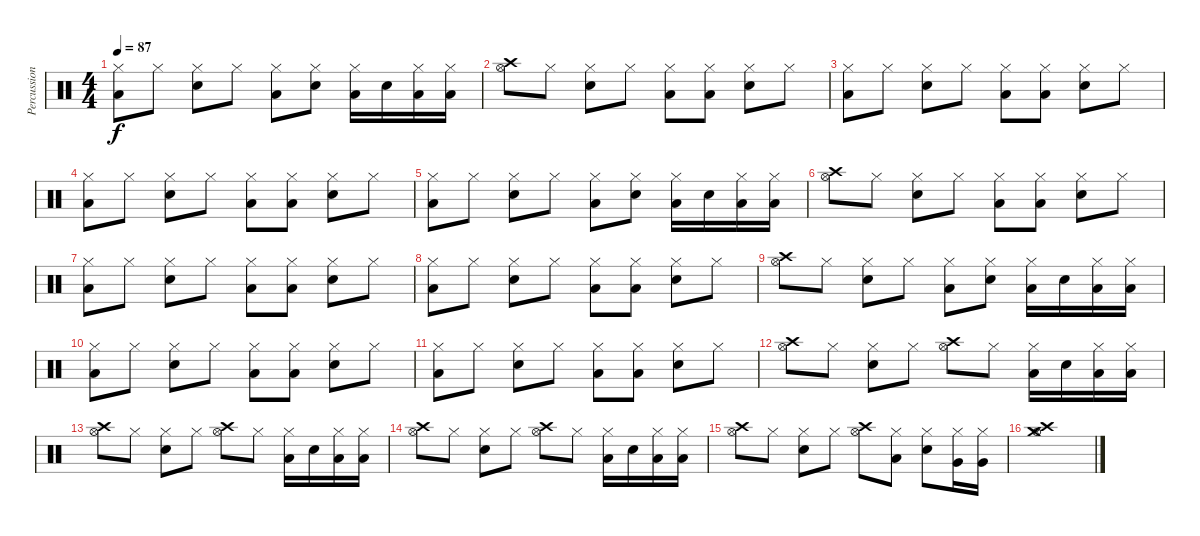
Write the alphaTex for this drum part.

\track ("Percussion" "Percussion") {instrument percussion}
\staff {score}
\articulation defaults
\ts (4 4)
\tempo 87
\clef neutral
\ks c
("Hi-Hat (closed)" "Low Floor Tom (hit)").8{dy f} "Hi-Hat (closed)".8 ("Hi-Hat (closed)" "Electric Snare (hit)").8 "Hi-Hat (closed)".8 ("Hi-Hat (closed)" "Low Floor Tom (hit)").8 ("Hi-Hat (closed)" "Electric Snare (hit)").8 ("Hi-Hat (closed)" "Low Floor Tom (hit)").16 "Electric Snare (hit)".16 ("Hi-Hat (closed)" "Low Floor Tom (hit)").16 ("Hi-Hat (closed)" "Low Floor Tom (hit)").16 |
("Crash high (hit)" "Hi-Hat (open)").8 "Hi-Hat (closed)".8 ("Hi-Hat (closed)" "Electric Snare (hit)").8 "Hi-Hat (closed)".8 ("Hi-Hat (closed)" "Low Floor Tom (hit)").8 ("Hi-Hat (closed)" "Low Floor Tom (hit)").8 ("Hi-Hat (closed)" "Electric Snare (hit)").8 "Hi-Hat (closed)".8 |
("Hi-Hat (closed)" "Low Floor Tom (hit)").8 "Hi-Hat (closed)".8 ("Hi-Hat (closed)" "Electric Snare (hit)").8 "Hi-Hat (closed)".8 ("Hi-Hat (closed)" "Low Floor Tom (hit)").8 ("Hi-Hat (closed)" "Low Floor Tom (hit)").8 ("Hi-Hat (closed)" "Electric Snare (hit)").8 "Hi-Hat (closed)".8 |
("Hi-Hat (closed)" "Low Floor Tom (hit)").8 "Hi-Hat (closed)".8 ("Hi-Hat (closed)" "Electric Snare (hit)").8 "Hi-Hat (closed)".8 ("Hi-Hat (closed)" "Low Floor Tom (hit)").8 ("Hi-Hat (closed)" "Low Floor Tom (hit)").8 ("Hi-Hat (closed)" "Electric Snare (hit)").8 "Hi-Hat (closed)".8 |
("Hi-Hat (closed)" "Low Floor Tom (hit)").8 "Hi-Hat (closed)".8 ("Hi-Hat (closed)" "Electric Snare (hit)").8 "Hi-Hat (closed)".8 ("Hi-Hat (closed)" "Low Floor Tom (hit)").8 ("Hi-Hat (closed)" "Electric Snare (hit)").8 ("Hi-Hat (closed)" "Low Floor Tom (hit)").16 "Electric Snare (hit)".16 ("Hi-Hat (closed)" "Low Floor Tom (hit)").16 ("Hi-Hat (closed)" "Low Floor Tom (hit)").16 |
("Crash high (hit)" "Hi-Hat (open)").8 "Hi-Hat (closed)".8 ("Hi-Hat (closed)" "Electric Snare (hit)").8 "Hi-Hat (closed)".8 ("Hi-Hat (closed)" "Low Floor Tom (hit)").8 ("Hi-Hat (closed)" "Low Floor Tom (hit)").8 ("Hi-Hat (closed)" "Electric Snare (hit)").8 "Hi-Hat (closed)".8 |
("Hi-Hat (closed)" "Low Floor Tom (hit)").8 "Hi-Hat (closed)".8 ("Hi-Hat (closed)" "Electric Snare (hit)").8 "Hi-Hat (closed)".8 ("Hi-Hat (closed)" "Low Floor Tom (hit)").8 ("Hi-Hat (closed)" "Low Floor Tom (hit)").8 ("Hi-Hat (closed)" "Electric Snare (hit)").8 "Hi-Hat (closed)".8 |
("Hi-Hat (closed)" "Low Floor Tom (hit)").8 "Hi-Hat (closed)".8 ("Hi-Hat (closed)" "Electric Snare (hit)").8 "Hi-Hat (closed)".8 ("Hi-Hat (closed)" "Low Floor Tom (hit)").8 ("Hi-Hat (closed)" "Low Floor Tom (hit)").8 ("Hi-Hat (closed)" "Electric Snare (hit)").8 "Hi-Hat (closed)".8 |
("Crash high (hit)" "Hi-Hat (open)").8 "Hi-Hat (closed)".8 ("Hi-Hat (closed)" "Electric Snare (hit)").8 "Hi-Hat (closed)".8 ("Hi-Hat (closed)" "Low Floor Tom (hit)").8 ("Hi-Hat (closed)" "Electric Snare (hit)").8 ("Hi-Hat (closed)" "Low Floor Tom (hit)").16 "Electric Snare (hit)".16 ("Hi-Hat (closed)" "Low Floor Tom (hit)").16 ("Hi-Hat (closed)" "Low Floor Tom (hit)").16 |
("Hi-Hat (closed)" "Low Floor Tom (hit)").8 "Hi-Hat (closed)".8 ("Hi-Hat (closed)" "Electric Snare (hit)").8 "Hi-Hat (closed)".8 ("Hi-Hat (closed)" "Low Floor Tom (hit)").8 ("Hi-Hat (closed)" "Low Floor Tom (hit)").8 ("Hi-Hat (closed)" "Electric Snare (hit)").8 "Hi-Hat (closed)".8 |
("Hi-Hat (closed)" "Low Floor Tom (hit)").8 "Hi-Hat (closed)".8 ("Hi-Hat (closed)" "Electric Snare (hit)").8 "Hi-Hat (closed)".8 ("Hi-Hat (closed)" "Low Floor Tom (hit)").8 ("Hi-Hat (closed)" "Low Floor Tom (hit)").8 ("Hi-Hat (closed)" "Electric Snare (hit)").8 "Hi-Hat (closed)".8 |
("Crash high (hit)" "Hi-Hat (open)").8 "Hi-Hat (closed)".8 ("Hi-Hat (closed)" "Electric Snare (hit)").8 "Hi-Hat (closed)".8 ("Crash high (hit)" "Hi-Hat (open)").8 "Hi-Hat (closed)".8 ("Hi-Hat (closed)" "Low Floor Tom (hit)").16 "Electric Snare (hit)".16 ("Hi-Hat (closed)" "Low Floor Tom (hit)").16 ("Hi-Hat (closed)" "Low Floor Tom (hit)").16 |
("Crash high (hit)" "Hi-Hat (open)").8 "Hi-Hat (closed)".8 ("Hi-Hat (closed)" "Electric Snare (hit)").8 "Hi-Hat (closed)".8 ("Crash high (hit)" "Hi-Hat (open)").8 "Hi-Hat (closed)".8 ("Hi-Hat (closed)" "Low Floor Tom (hit)").16 "Electric Snare (hit)".16 ("Hi-Hat (closed)" "Low Floor Tom (hit)").16 ("Hi-Hat (closed)" "Low Floor Tom (hit)").16 |
("Crash high (hit)" "Hi-Hat (open)").8 "Hi-Hat (closed)".8 ("Hi-Hat (closed)" "Electric Snare (hit)").8 "Hi-Hat (closed)".8 ("Crash high (hit)" "Hi-Hat (open)").8 "Hi-Hat (closed)".8 ("Hi-Hat (closed)" "Low Floor Tom (hit)").16 "Electric Snare (hit)".16 ("Hi-Hat (closed)" "Low Floor Tom (hit)").16 ("Hi-Hat (closed)" "Low Floor Tom (hit)").16 |
("Crash high (hit)" "Hi-Hat (open)").8 "Hi-Hat (closed)".8 ("Hi-Hat (closed)" "Electric Snare (hit)").8 "Hi-Hat (closed)".8 ("Crash high (hit)" "Hi-Hat (open)").8 ("Hi-Hat (closed)" "Low Floor Tom (hit)").8 ("Hi-Hat (closed)" "Electric Snare (hit)").8 ("Hi-Hat (closed)" "Very Low Tom (hit)").16 ("Hi-Hat (closed)" "Very Low Tom (hit)").16 |
("Crash high (hit)" "Hi-Hat (open)" "Crash medium (hit)").1
